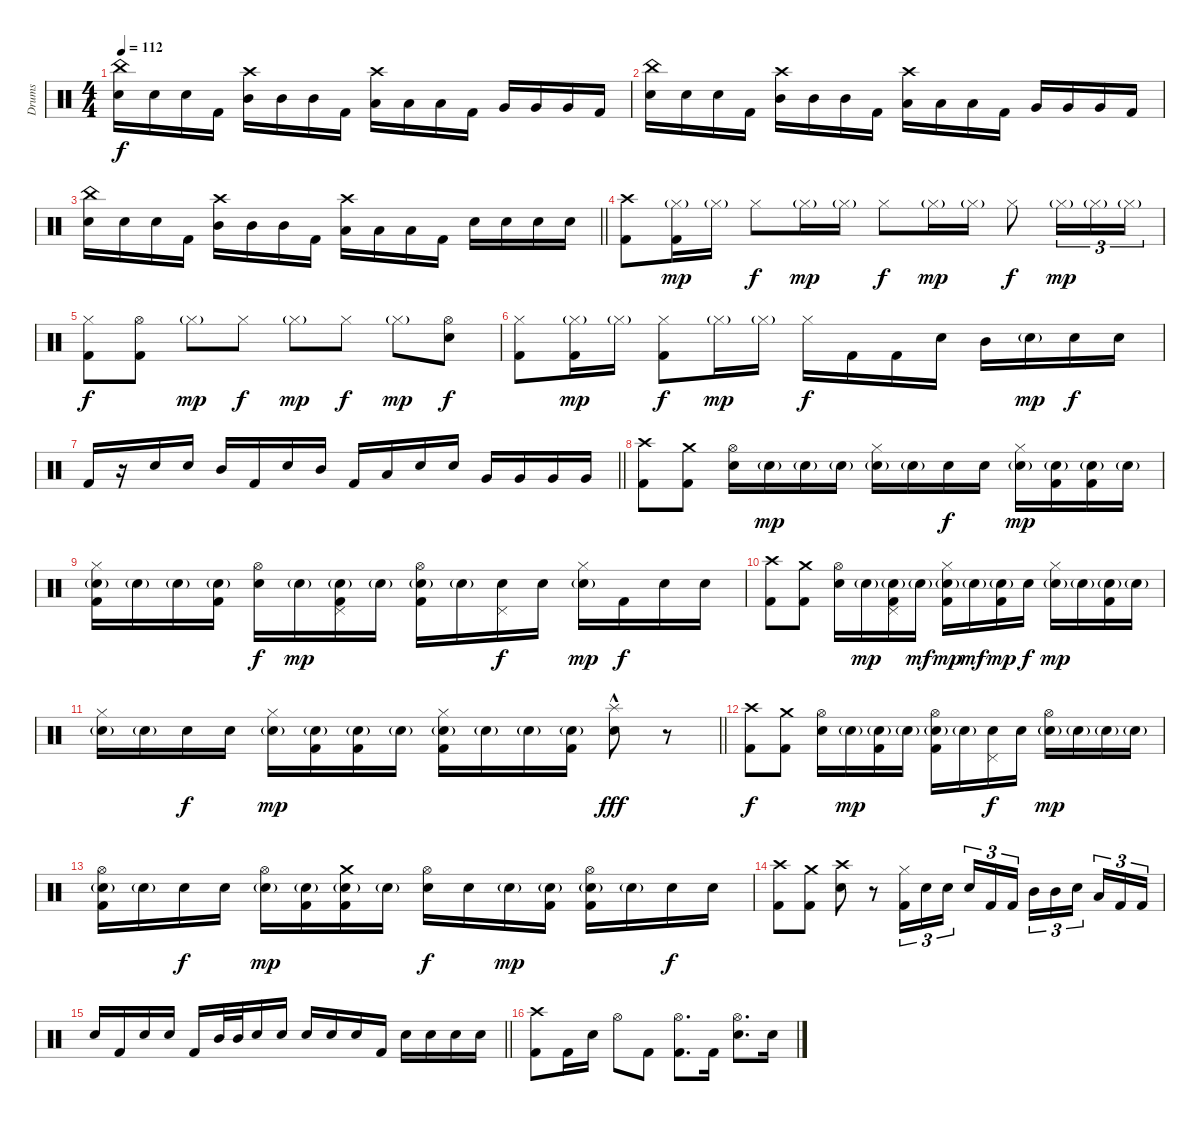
\track ("Drums" "Drums") {instrument percussion}
\staff {score}
\articulation defaults
\ts (4 4)
\tempo 112
\clef neutral
\ks c
("China (hit)" "Electric Snare (hit)").16{dy f} "Electric Snare (hit)".16 "Electric Snare (hit)".16 "Kick (hit) 2".16 ("Crash high (hit)" "Mid Tom (hit)").16 "Mid Tom (hit)".16 "Mid Tom (hit)".16 "Kick (hit) 2".16 ("Crash high (hit)" "Low Tom (hit)").16 "Low Tom (hit)".16 "Low Tom (hit)".16 "Kick (hit) 2".16 "Very Low Tom (hit)".16 "Very Low Tom (hit)".16 "Very Low Tom (hit)".16 "Kick (hit) 2".16 |
("China (hit)" "Electric Snare (hit)").16 "Electric Snare (hit)".16 "Electric Snare (hit)".16 "Kick (hit) 2".16 ("Crash high (hit)" "Mid Tom (hit)").16 "Mid Tom (hit)".16 "Mid Tom (hit)".16 "Kick (hit) 2".16 ("Crash high (hit)" "Low Tom (hit)").16 "Low Tom (hit)".16 "Low Tom (hit)".16 "Kick (hit) 2".16 "Very Low Tom (hit)".16 "Very Low Tom (hit)".16 "Very Low Tom (hit)".16 "Kick (hit) 2".16 |
\barLineRight lightlight
("China (hit)" "Electric Snare (hit)").16 "Electric Snare (hit)".16 "Electric Snare (hit)".16 "Kick (hit) 2".16 ("Crash high (hit)" "Mid Tom (hit)").16 "Mid Tom (hit)".16 "Mid Tom (hit)".16 "Kick (hit) 2".16 ("Crash high (hit)" "Low Tom (hit)").16 "Low Tom (hit)".16 "Low Tom (hit)".16 "Kick (hit) 2".16 "Electric Snare (hit)".16 "Electric Snare (hit)".16 "Electric Snare (hit)".16 "Electric Snare (hit)".16 |
("Crash high (hit)" "Kick (hit) 2").8 ("Hi-Hat (closed)"{g} "Kick (hit) 2").16{dy mp} "Hi-Hat (closed)"{g}.16 "Hi-Hat (closed)".8{dy f} "Hi-Hat (closed)"{g}.16{dy mp} "Hi-Hat (closed)"{g}.16 "Hi-Hat (closed)".8{dy f} "Hi-Hat (closed)"{g}.16{dy mp} "Hi-Hat (closed)"{g}.16 "Hi-Hat (closed)".8{dy f} "Hi-Hat (closed)"{g}.16{tu (3 2) dy mp} "Hi-Hat (closed)"{g}.16{tu (3 2)} "Hi-Hat (closed)"{g}.16{tu (3 2)} |
("Hi-Hat (closed)" "Kick (hit) 2").8{dy f} ("Hi-Hat (open)" "Kick (hit) 2").8 "Hi-Hat (closed)"{g}.8{dy mp} "Hi-Hat (closed)".8{dy f} "Hi-Hat (closed)"{g}.8{dy mp} "Hi-Hat (closed)".8{dy f} "Hi-Hat (closed)"{g}.8{dy mp} ("Hi-Hat (open)" "Electric Snare (hit)").8{dy f} |
("Hi-Hat (closed)" "Kick (hit) 2").8 ("Hi-Hat (closed)"{g} "Kick (hit) 2").16{dy mp} "Hi-Hat (closed)"{g}.16 ("Hi-Hat (closed)" "Kick (hit) 2").8{dy f} "Hi-Hat (closed)"{g}.16{dy mp} "Hi-Hat (closed)"{g}.16 "Hi-Hat (closed)".16{dy f} "Kick (hit) 2".16 "Kick (hit) 2".16 "Electric Snare (hit)".16 "Mid Tom (hit)".16 "Electric Snare (hit)"{g}.16{dy mp} "Electric Snare (hit)".16{dy f} "Electric Snare (hit)".16 |
\barLineRight lightlight "Kick (hit) 2".16
r.16 "Electric Snare (hit)".16 "Electric Snare (hit)".16 "Mid Tom (hit)".16 "Kick (hit) 2".16 "Electric Snare (hit)".16 "Mid Tom (hit)".16 "Kick (hit) 2".16 "Low Tom (hit)".16 "Electric Snare (hit)".16 "Electric Snare (hit)".16 "Very Low Tom (hit)".16 "Very Low Tom (hit)".16 "Very Low Tom (hit)".16 "Very Low Tom (hit)".16 |
("Crash high (hit)" "Kick (hit) 2").8 ("Crash medium (hit)" "Kick (hit) 2").8 ("Hi-Hat (open)" "Electric Snare (hit)").16 "Electric Snare (hit)"{g}.16{dy mp} "Electric Snare (hit)"{g}.16 "Electric Snare (hit)"{g}.16 ("Hi-Hat (closed)" "Electric Snare (hit)"{g}).16 "Electric Snare (hit)"{g}.16 "Electric Snare (hit)".16{dy f} "Electric Snare (hit)".16 ("Hi-Hat (closed)" "Electric Snare (hit)"{g}).16{dy mp} ("Electric Snare (hit)"{g} "Kick (hit) 2").16 ("Electric Snare (hit)"{g} "Kick (hit) 2").16 "Electric Snare (hit)"{g}.16 |
("Hi-Hat (closed)" "Electric Snare (hit)"{g} "Kick (hit) 2").16 "Electric Snare (hit)"{g}.16 "Electric Snare (hit)"{g}.16 ("Electric Snare (hit)"{g} "Kick (hit) 2").16 ("Hi-Hat (open)" "Electric Snare (hit)").16{dy f} "Electric Snare (hit)"{g}.16{dy mp} ("Pedal Hi-Hat (hit)" "Electric Snare (hit)"{g} "Kick (hit) 2").16 "Electric Snare (hit)"{g}.16 ("Hi-Hat (open)" "Electric Snare (hit)"{g} "Kick (hit) 2").16 "Electric Snare (hit)"{g}.16 ("Pedal Hi-Hat (hit)" "Electric Snare (hit)").16{dy f} "Electric Snare (hit)".16 ("Hi-Hat (closed)" "Electric Snare (hit)"{g}).16{dy mp} "Kick (hit) 2".16{dy f} "Electric Snare (hit)".16 "Electric Snare (hit)".16 |
("Crash high (hit)" "Kick (hit) 2").8 ("Crash medium (hit)" "Kick (hit) 2").8 ("Hi-Hat (open)" "Electric Snare (hit)").16 "Electric Snare (hit)"{g}.16{dy mp} ("Pedal Hi-Hat (hit)" "Electric Snare (hit)"{g} "Kick (hit) 2").16 "Electric Snare (hit)"{g}.16{dy mf} ("Hi-Hat (closed)" "Electric Snare (hit)"{g} "Kick (hit) 2").16{dy mp} "Electric Snare (hit)"{g}.16{dy mf} ("Electric Snare (hit)"{g} "Kick (hit) 2").16{dy mp} "Electric Snare (hit)".16{dy f} ("Hi-Hat (closed)" "Electric Snare (hit)"{g}).16{dy mp} "Electric Snare (hit)"{g}.16 ("Electric Snare (hit)"{g} "Kick (hit) 2").16 "Electric Snare (hit)"{g}.16 |
\barLineRight lightlight
("Hi-Hat (closed)" "Electric Snare (hit)"{g}).16 "Electric Snare (hit)"{g}.16 "Electric Snare (hit)".16{dy f} "Electric Snare (hit)".16 ("Hi-Hat (closed)" "Electric Snare (hit)"{g}).16{dy mp} ("Electric Snare (hit)"{g} "Kick (hit) 2").16 ("Electric Snare (hit)"{g} "Kick (hit) 2").16 "Electric Snare (hit)"{g}.16 ("Hi-Hat (closed)" "Electric Snare (hit)"{g} "Kick (hit) 2").16 "Electric Snare (hit)"{g}.16 "Electric Snare (hit)"{g}.16 ("Electric Snare (hit)"{g} "Kick (hit) 2").16 ("Splash (hit)"{hac} "Electric Snare (hit)").8{dy fff} r.8 |
("Crash high (hit)" "Kick (hit) 2").8{dy f} ("Crash medium (hit)" "Kick (hit) 2").8 ("Hi-Hat (open)" "Electric Snare (hit)").16 "Electric Snare (hit)"{g}.16{dy mp} ("Electric Snare (hit)"{g} "Kick (hit) 2").16 "Electric Snare (hit)"{g}.16 ("Hi-Hat (open)" "Electric Snare (hit)"{g} "Kick (hit) 2").16 "Electric Snare (hit)"{g}.16 ("Pedal Hi-Hat (hit)" "Electric Snare (hit)").16{dy f} "Electric Snare (hit)".16 ("Hi-Hat (open)" "Electric Snare (hit)"{g}).16{dy mp} "Electric Snare (hit)"{g}.16 "Electric Snare (hit)"{g}.16 "Electric Snare (hit)"{g}.16 |
("Hi-Hat (open)" "Electric Snare (hit)"{g} "Kick (hit) 2").16 "Electric Snare (hit)"{g}.16 "Electric Snare (hit)".16{dy f} "Electric Snare (hit)".16 ("Hi-Hat (open)" "Electric Snare (hit)"{g}).16{dy mp} ("Electric Snare (hit)"{g} "Kick (hit) 2").16 ("Crash medium (hit)" "Electric Snare (hit)"{g} "Kick (hit) 2").16 "Electric Snare (hit)"{g}.16 ("Hi-Hat (open)" "Electric Snare (hit)").16{dy f} "Electric Snare (hit)".16 "Electric Snare (hit)"{g}.16{dy mp} ("Electric Snare (hit)"{g} "Kick (hit) 2").16 ("Hi-Hat (open)" "Electric Snare (hit)"{g} "Kick (hit) 2").16 "Electric Snare (hit)"{g}.16 "Electric Snare (hit)".16{dy f} "Electric Snare (hit)".16 |
("Crash high (hit)" "Kick (hit) 2").8 ("Crash medium (hit)" "Kick (hit) 2").8 ("Crash high (hit)" "Electric Snare (hit)").8 r.8 ("Hi-Hat (closed)" "Kick (hit) 2").16{tu (3 2)} "Electric Snare (hit)".16{tu (3 2)} "Electric Snare (hit)".16{tu (3 2) beam splitsecondary} "Electric Snare (hit)".16{tu (3 2)} "Kick (hit) 2".16{tu (3 2)} "Kick (hit) 2".16{tu (3 2)} "Mid Tom (hit)".16{tu (3 2)} "Mid Tom (hit)".16{tu (3 2)} "Electric Snare (hit)".16{tu (3 2) beam splitsecondary} "Low Tom (hit)".16{tu (3 2)} "Kick (hit) 2".16{tu (3 2)} "Kick (hit) 2".16{tu (3 2)} |
\barLineRight lightlight "Electric Snare (hit)".16 "Kick (hit) 2".16 "Electric Snare (hit)".16 "Electric Snare (hit)".16 "Kick (hit) 2".16 "Mid Tom (hit)".32 "Mid Tom (hit)".32 "Electric Snare (hit)".16 "Electric Snare (hit)".16 "Electric Snare (hit)".16 "Electric Snare (hit)".16 "Electric Snare (hit)".16 "Kick (hit) 2".16 "Electric Snare (hit)".16 "Electric Snare (hit)".16 "Electric Snare (hit)".16 "Electric Snare (hit)".16
|
("Crash high (hit)" "Kick (hit) 2").8 "Kick (hit) 2".16 "Electric Snare (hit)".16 "Hi-Hat (open)".8 "Kick (hit) 2".8 ("Hi-Hat (open)" "Kick (hit) 2").8{d} "Kick (hit) 2".16 ("Hi-Hat (open)" "Electric Snare (hit)").8{d} "Electric Snare (hit)".16
